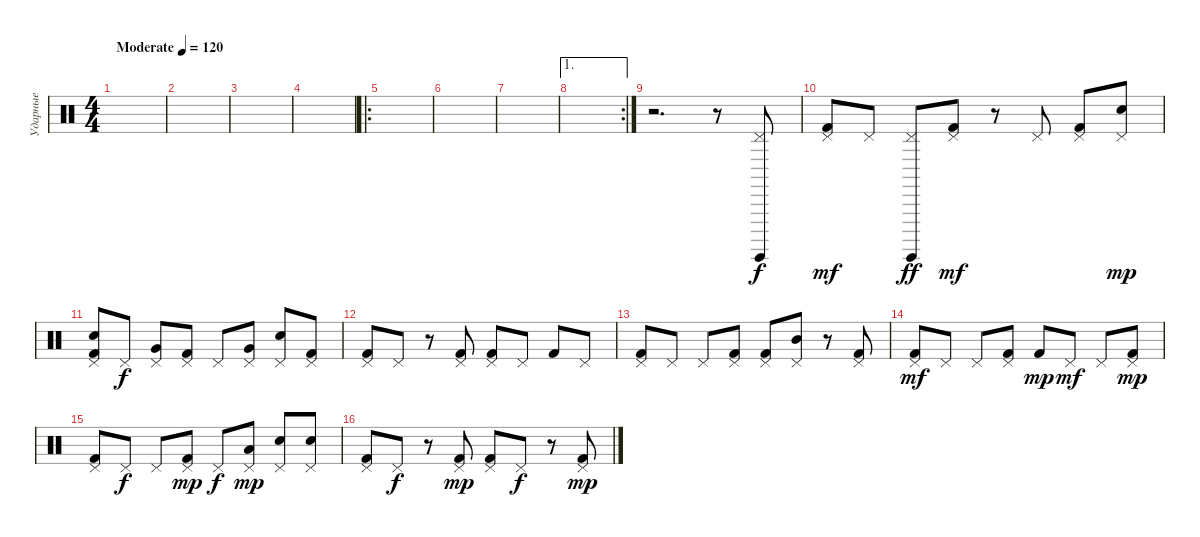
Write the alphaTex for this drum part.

\track ("Ударные" "Ударные") {instrument percussion}
\staff {score}
\articulation defaults
\ts (4 4)
\tempo (120 "Moderate")
\clef neutral
\ks c
|
|
|
|
\ro
|
|
|
\ae 1
\rc 2
|
r.2{d} r.8 ("Pedal Hi-Hat (hit)" "Surdo (hit)").8 |
("Pedal Hi-Hat (hit)" "Kick (hit) 2").8{dy mf} "Pedal Hi-Hat (hit)".8 ("Pedal Hi-Hat (hit)" "Surdo (hit)").8{dy ff} ("Pedal Hi-Hat (hit)" "Kick (hit) 2").8{dy mf} r.8 "Pedal Hi-Hat (hit)".8 ("Pedal Hi-Hat (hit)" "Kick (hit) 2").8 ("Pedal Hi-Hat (hit)" "Electric Snare (hit)").8{dy mp} |
("Pedal Hi-Hat (hit)" "Snare (hit) 2" "Kick (hit) 2").8 "Pedal Hi-Hat (hit)".8{dy f} ("Pedal Hi-Hat (hit)" "Very Low Tom (hit)").8 ("Pedal Hi-Hat (hit)" "Kick (hit) 2").8 "Pedal Hi-Hat (hit)".8 ("Pedal Hi-Hat (hit)" "Very Low Tom (hit)").8 ("Pedal Hi-Hat (hit)" "Electric Snare (hit)").8 ("Pedal Hi-Hat (hit)" "Kick (hit) 2").8 |
("Pedal Hi-Hat (hit)" "Kick (hit) 2").8 "Pedal Hi-Hat (hit)".8 r.8 ("Pedal Hi-Hat (hit)" "Kick (hit) 2").8 ("Pedal Hi-Hat (hit)" "Kick (hit) 2").8 "Pedal Hi-Hat (hit)".8 "Kick (hit) 2".8 "Pedal Hi-Hat (hit)".8 |
("Pedal Hi-Hat (hit)" "Kick (hit) 2").8 "Pedal Hi-Hat (hit)".8 "Pedal Hi-Hat (hit)".8 ("Pedal Hi-Hat (hit)" "Kick (hit) 2").8 ("Pedal Hi-Hat (hit)" "Kick (hit) 2").8 ("Pedal Hi-Hat (hit)" "Mid Tom (hit)").8 r.8 ("Pedal Hi-Hat (hit)" "Kick (hit) 2").8 |
("Pedal Hi-Hat (hit)" "Kick (hit) 2").8{dy mf} "Pedal Hi-Hat (hit)".8 "Pedal Hi-Hat (hit)".8 ("Pedal Hi-Hat (hit)" "Kick (hit) 2").8 "Kick (hit) 2".8{dy mp} "Pedal Hi-Hat (hit)".8{dy mf} "Pedal Hi-Hat (hit)".8 ("Pedal Hi-Hat (hit)" "Kick (hit) 2").8{dy mp} |
("Pedal Hi-Hat (hit)" "Kick (hit) 2").8 "Pedal Hi-Hat (hit)".8{dy f} "Pedal Hi-Hat (hit)".8 ("Pedal Hi-Hat (hit)" "Kick (hit) 2").8{dy mp} "Pedal Hi-Hat (hit)".8{dy f} ("Pedal Hi-Hat (hit)" "Low Floor Tom (hit)").8{dy mp} ("Pedal Hi-Hat (hit)" "Snare (hit) 2").8 ("Pedal Hi-Hat (hit)" "Snare (hit) 2").8 |
("Pedal Hi-Hat (hit)" "Kick (hit) 2").8 "Pedal Hi-Hat (hit)".8{dy f} r.8 ("Pedal Hi-Hat (hit)" "Kick (hit) 2").8{dy mp} ("Pedal Hi-Hat (hit)" "Kick (hit) 2").8 "Pedal Hi-Hat (hit)".8{dy f} r.8 ("Pedal Hi-Hat (hit)" "Kick (hit) 2").8{dy mp}
